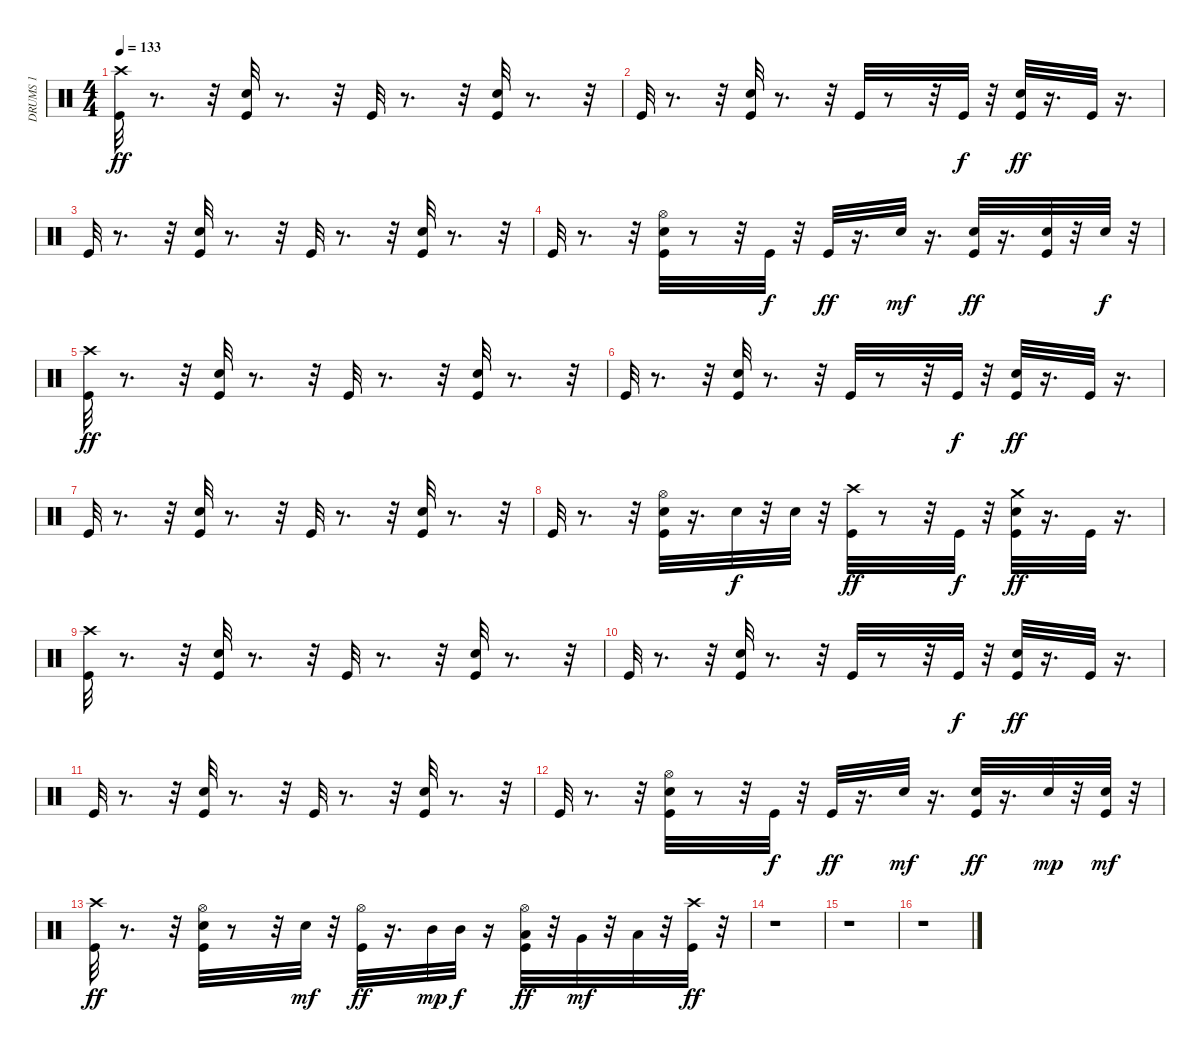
\track ("DRUMS 1                             " "DRUMS 1   ") {instrument percussion}
\staff {score}
\articulation defaults
\ts (4 4)
\tempo 133
\clef neutral
\ks c
("Crash high (hit)" "Kick (hit)").32{dy ff} r.8{d} r.32 ("Electric Snare (hit)" "Kick (hit)").32 r.8{d} r.32 "Kick (hit)".32 r.8{d} r.32 ("Electric Snare (hit)" "Kick (hit)").32 r.8{d} r.32 |
"Kick (hit)".32 r.8{d} r.32 ("Electric Snare (hit)" "Kick (hit)").32 r.8{d} r.32 "Kick (hit)".32 r.8 r.32 "Kick (hit)".32{dy f} r.32 ("Electric Snare (hit)" "Kick (hit)").32{dy ff} r.16{d} "Kick (hit)".32 r.16{d} |
"Kick (hit)".32 r.8{d} r.32 ("Electric Snare (hit)" "Kick (hit)").32 r.8{d} r.32 "Kick (hit)".32 r.8{d} r.32 ("Electric Snare (hit)" "Kick (hit)").32 r.8{d} r.32 |
"Kick (hit)".32 r.8{d} r.32 ("Hi-Hat (open)" "Electric Snare (hit)" "Kick (hit)").32 r.8 r.32 "Kick (hit)".32{dy f} r.32 "Kick (hit)".32{dy ff} r.16{d} "Electric Snare (hit)".32{dy mf} r.16{d} ("Electric Snare (hit)" "Kick (hit)").32{dy ff} r.16{d} ("Electric Snare (hit)" "Kick (hit)").32 r.32 "Electric Snare (hit)".32{dy f} r.32 |
("Crash high (hit)" "Kick (hit)").32{dy ff} r.8{d} r.32 ("Electric Snare (hit)" "Kick (hit)").32 r.8{d} r.32 "Kick (hit)".32 r.8{d} r.32 ("Electric Snare (hit)" "Kick (hit)").32 r.8{d} r.32 |
"Kick (hit)".32 r.8{d} r.32 ("Electric Snare (hit)" "Kick (hit)").32 r.8{d} r.32 "Kick (hit)".32 r.8 r.32 "Kick (hit)".32{dy f} r.32 ("Electric Snare (hit)" "Kick (hit)").32{dy ff} r.16{d} "Kick (hit)".32 r.16{d} |
"Kick (hit)".32 r.8{d} r.32 ("Electric Snare (hit)" "Kick (hit)").32 r.8{d} r.32 "Kick (hit)".32 r.8{d} r.32 ("Electric Snare (hit)" "Kick (hit)").32 r.8{d} r.32 |
"Kick (hit)".32 r.8{d} r.32 ("Hi-Hat (open)" "Electric Snare (hit)" "Kick (hit)").32 r.16{d} "Electric Snare (hit)".32{dy f} r.32 "Electric Snare (hit)".32 r.32 ("Crash high (hit)" "Kick (hit)").32{dy ff} r.8 r.32 "Kick (hit)".32{dy f} r.32 ("Crash medium (hit)" "Electric Snare (hit)" "Kick (hit)").32{dy ff} r.16{d} "Kick (hit)".32 r.16{d} |
("Crash high (hit)" "Kick (hit)").32 r.8{d} r.32 ("Electric Snare (hit)" "Kick (hit)").32 r.8{d} r.32 "Kick (hit)".32 r.8{d} r.32 ("Electric Snare (hit)" "Kick (hit)").32 r.8{d} r.32 |
"Kick (hit)".32 r.8{d} r.32 ("Electric Snare (hit)" "Kick (hit)").32 r.8{d} r.32 "Kick (hit)".32 r.8 r.32 "Kick (hit)".32{dy f} r.32 ("Electric Snare (hit)" "Kick (hit)").32{dy ff} r.16{d} "Kick (hit)".32 r.16{d} |
"Kick (hit)".32 r.8{d} r.32 ("Electric Snare (hit)" "Kick (hit)").32 r.8{d} r.32 "Kick (hit)".32 r.8{d} r.32 ("Electric Snare (hit)" "Kick (hit)").32 r.8{d} r.32 |
"Kick (hit)".32 r.8{d} r.32 ("Hi-Hat (open)" "Electric Snare (hit)" "Kick (hit)").32 r.8 r.32 "Kick (hit)".32{dy f} r.32 "Kick (hit)".32{dy ff} r.16{d} "Electric Snare (hit)".32{dy mf} r.16{d} ("Electric Snare (hit)" "Kick (hit)").32{dy ff} r.16{d} "Electric Snare (hit)".32{dy mp} r.32 ("Electric Snare (hit)" "Kick (hit)").32{dy mf} r.32 |
("Crash high (hit)" "Kick (hit)").32{dy ff} r.8{d} r.32 ("Hi-Hat (open)" "Electric Snare (hit)" "Kick (hit)").32 r.8 r.32 "Electric Snare (hit)".32{dy mf} r.32 ("Hi-Hat (open)" "Kick (hit)").32{dy ff} r.16{d} "Mid Tom (hit)".32{dy mp} "Mid Tom (hit)".32{dy f} r.16 ("Low Tom (hit)" "Hi-Hat (open)" "Kick (hit)").32{dy ff} r.32 "Very Low Tom (hit)".32{dy mf} r.32 "Low Floor Tom (hit)".32 r.32 ("Crash high (hit)" "Kick (hit)").32{dy ff} r.32 |
r.1 |
r.1 |
r.1
